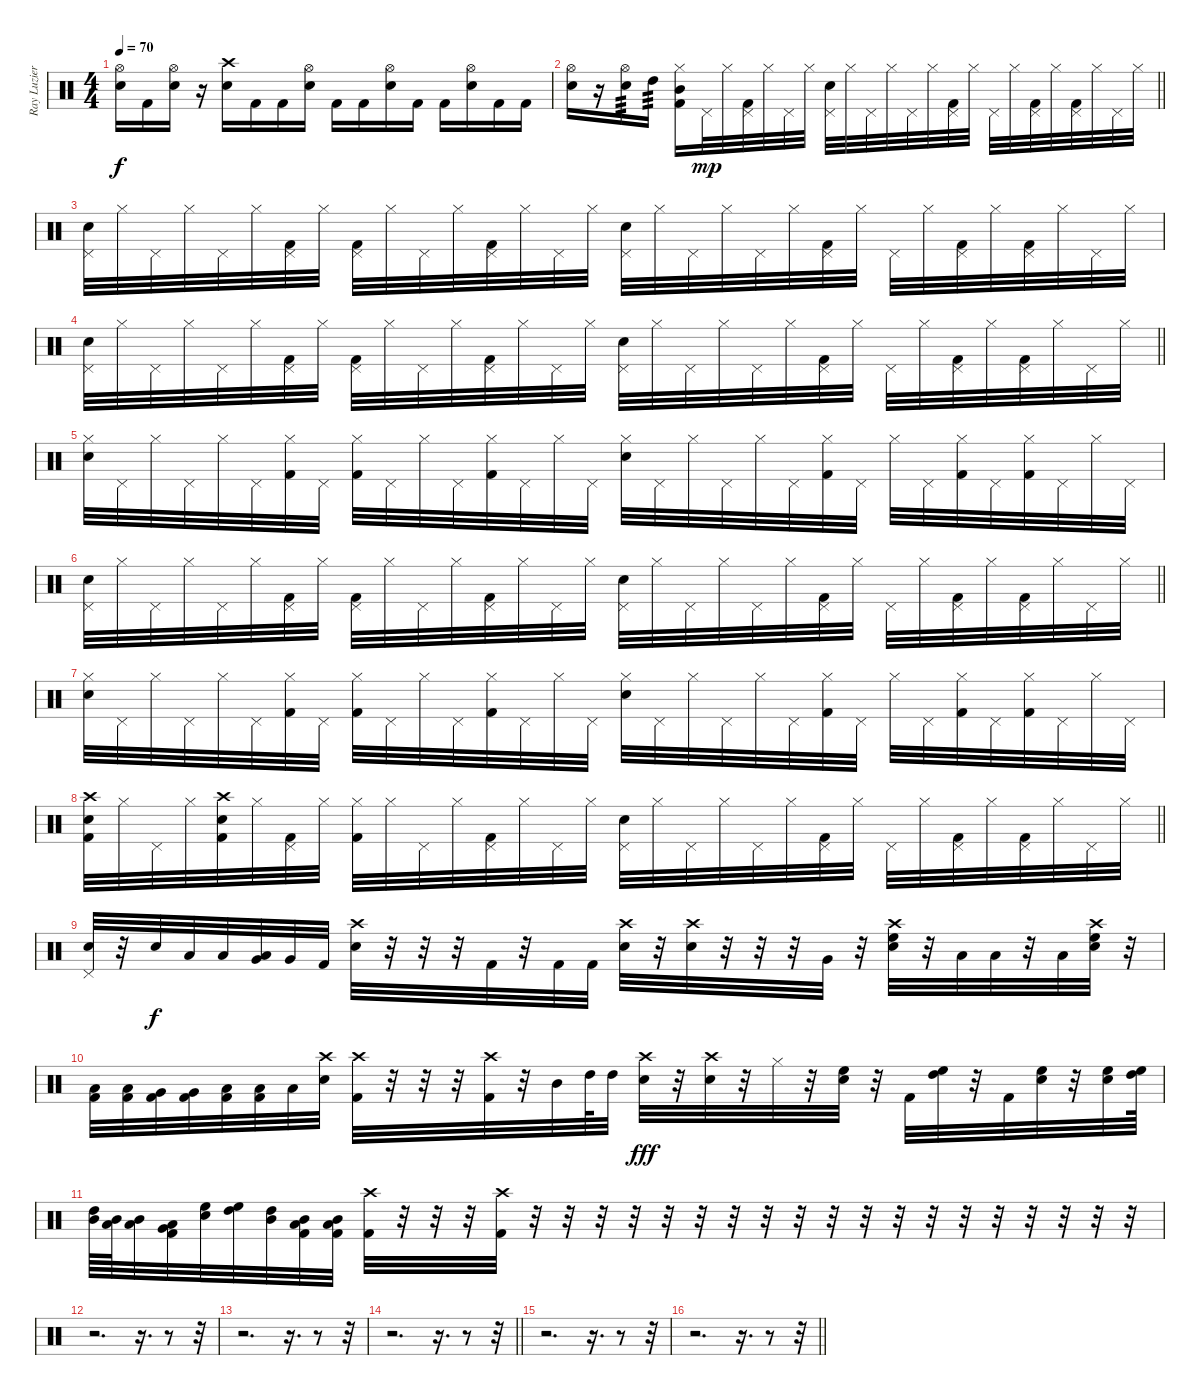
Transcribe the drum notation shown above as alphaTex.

\track ("Ray Luzier (Drums)" "Ray Luzier") {instrument percussion}
\staff {score}
\articulation defaults
\ts (4 4)
\tempo 70
\clef neutral
\ks c
("Hi-Hat (open)" "Electric Snare (hit)").16{dy f} "Kick (hit) 2".16 ("Hi-Hat (open)" "Electric Snare (hit)").16 r.16 ("Crash high (hit)" "Electric Snare (hit)").16 "Kick (hit) 2".16 "Kick (hit) 2".16 ("Hi-Hat (open)" "Electric Snare (hit)").16 "Kick (hit) 2".16 "Kick (hit) 2".16 ("Hi-Hat (open)" "Electric Snare (hit)").16 "Kick (hit) 2".16 "Kick (hit) 2".16 ("Hi-Hat (open)" "Electric Snare (hit)").16 "Kick (hit) 2".16 "Kick (hit) 2".16 |
\barLineRight lightlight
("Hi-Hat (open)" "Electric Snare (hit)").16 r.16 ("Hi-Hat (open)" "Electric Snare (hit)").16{tp 3} "High Tom (hit)".16{tp 3} ("Hi-Hat (closed)" "Mid Tom (hit)" "Kick (hit) 2").16 "Pedal Hi-Hat (hit)".32{dy mp} "Hi-Hat (closed)".32 ("Pedal Hi-Hat (hit)" "Kick (hit) 2").32 "Hi-Hat (closed)".32 "Pedal Hi-Hat (hit)".32 "Hi-Hat (closed)".32 ("Pedal Hi-Hat (hit)" "Electric Snare (hit)").32 "Hi-Hat (closed)".32 "Pedal Hi-Hat (hit)".32 "Hi-Hat (closed)".32 "Pedal Hi-Hat (hit)".32 "Hi-Hat (closed)".32 ("Pedal Hi-Hat (hit)" "Kick (hit) 2").32 "Hi-Hat (closed)".32 "Pedal Hi-Hat (hit)".32 "Hi-Hat (closed)".32 ("Pedal Hi-Hat (hit)" "Kick (hit) 2").32 "Hi-Hat (closed)".32 ("Pedal Hi-Hat (hit)" "Kick (hit) 2").32 "Hi-Hat (closed)".32 "Pedal Hi-Hat (hit)".32 "Hi-Hat (closed)".32 |
("Pedal Hi-Hat (hit)" "Electric Snare (hit)").32 "Hi-Hat (closed)".32 "Pedal Hi-Hat (hit)".32 "Hi-Hat (closed)".32 "Pedal Hi-Hat (hit)".32 "Hi-Hat (closed)".32 ("Pedal Hi-Hat (hit)" "Kick (hit) 2").32 "Hi-Hat (closed)".32 ("Pedal Hi-Hat (hit)" "Kick (hit) 2").32 "Hi-Hat (closed)".32 "Pedal Hi-Hat (hit)".32 "Hi-Hat (closed)".32 ("Pedal Hi-Hat (hit)" "Kick (hit) 2").32 "Hi-Hat (closed)".32 "Pedal Hi-Hat (hit)".32 "Hi-Hat (closed)".32 ("Pedal Hi-Hat (hit)" "Electric Snare (hit)").32 "Hi-Hat (closed)".32 "Pedal Hi-Hat (hit)".32 "Hi-Hat (closed)".32 "Pedal Hi-Hat (hit)".32 "Hi-Hat (closed)".32 ("Pedal Hi-Hat (hit)" "Kick (hit) 2").32 "Hi-Hat (closed)".32 "Pedal Hi-Hat (hit)".32 "Hi-Hat (closed)".32 ("Pedal Hi-Hat (hit)" "Kick (hit) 2").32 "Hi-Hat (closed)".32 ("Pedal Hi-Hat (hit)" "Kick (hit) 2").32 "Hi-Hat (closed)".32 "Pedal Hi-Hat (hit)".32 "Hi-Hat (closed)".32 |
\barLineRight lightlight
("Pedal Hi-Hat (hit)" "Electric Snare (hit)").32 "Hi-Hat (closed)".32 "Pedal Hi-Hat (hit)".32 "Hi-Hat (closed)".32 "Pedal Hi-Hat (hit)".32 "Hi-Hat (closed)".32 ("Pedal Hi-Hat (hit)" "Kick (hit) 2").32 "Hi-Hat (closed)".32 ("Pedal Hi-Hat (hit)" "Kick (hit) 2").32 "Hi-Hat (closed)".32 "Pedal Hi-Hat (hit)".32 "Hi-Hat (closed)".32 ("Pedal Hi-Hat (hit)" "Kick (hit) 2").32 "Hi-Hat (closed)".32 "Pedal Hi-Hat (hit)".32 "Hi-Hat (closed)".32 ("Pedal Hi-Hat (hit)" "Electric Snare (hit)").32 "Hi-Hat (closed)".32 "Pedal Hi-Hat (hit)".32 "Hi-Hat (closed)".32 "Pedal Hi-Hat (hit)".32 "Hi-Hat (closed)".32 ("Pedal Hi-Hat (hit)" "Kick (hit) 2").32 "Hi-Hat (closed)".32 "Pedal Hi-Hat (hit)".32 "Hi-Hat (closed)".32 ("Pedal Hi-Hat (hit)" "Kick (hit) 2").32 "Hi-Hat (closed)".32 ("Pedal Hi-Hat (hit)" "Kick (hit) 2").32 "Hi-Hat (closed)".32 "Pedal Hi-Hat (hit)".32 "Hi-Hat (closed)".32 |
("Hi-Hat (closed)" "Electric Snare (hit)").32 "Pedal Hi-Hat (hit)".32 "Hi-Hat (closed)".32 "Pedal Hi-Hat (hit)".32 "Hi-Hat (closed)".32 "Pedal Hi-Hat (hit)".32 ("Hi-Hat (closed)" "Kick (hit) 2").32 "Pedal Hi-Hat (hit)".32 ("Hi-Hat (closed)" "Kick (hit) 2").32 "Pedal Hi-Hat (hit)".32 "Hi-Hat (closed)".32 "Pedal Hi-Hat (hit)".32 ("Hi-Hat (closed)" "Kick (hit) 2").32 "Pedal Hi-Hat (hit)".32 "Hi-Hat (closed)".32 "Pedal Hi-Hat (hit)".32 ("Hi-Hat (closed)" "Electric Snare (hit)").32 "Pedal Hi-Hat (hit)".32 "Hi-Hat (closed)".32 "Pedal Hi-Hat (hit)".32 "Hi-Hat (closed)".32 "Pedal Hi-Hat (hit)".32 ("Hi-Hat (closed)" "Kick (hit) 2").32 "Pedal Hi-Hat (hit)".32 "Hi-Hat (closed)".32 "Pedal Hi-Hat (hit)".32 ("Hi-Hat (closed)" "Kick (hit) 2").32 "Pedal Hi-Hat (hit)".32 ("Hi-Hat (closed)" "Kick (hit) 2").32 "Pedal Hi-Hat (hit)".32 "Hi-Hat (closed)".32 "Pedal Hi-Hat (hit)".32 |
\barLineRight lightlight
("Pedal Hi-Hat (hit)" "Electric Snare (hit)").32 "Hi-Hat (closed)".32 "Pedal Hi-Hat (hit)".32 "Hi-Hat (closed)".32 "Pedal Hi-Hat (hit)".32 "Hi-Hat (closed)".32 ("Pedal Hi-Hat (hit)" "Kick (hit) 2").32 "Hi-Hat (closed)".32 ("Pedal Hi-Hat (hit)" "Kick (hit) 2").32 "Hi-Hat (closed)".32 "Pedal Hi-Hat (hit)".32 "Hi-Hat (closed)".32 ("Pedal Hi-Hat (hit)" "Kick (hit) 2").32 "Hi-Hat (closed)".32 "Pedal Hi-Hat (hit)".32 "Hi-Hat (closed)".32 ("Pedal Hi-Hat (hit)" "Electric Snare (hit)").32 "Hi-Hat (closed)".32 "Pedal Hi-Hat (hit)".32 "Hi-Hat (closed)".32 "Pedal Hi-Hat (hit)".32 "Hi-Hat (closed)".32 ("Pedal Hi-Hat (hit)" "Kick (hit) 2").32 "Hi-Hat (closed)".32 "Pedal Hi-Hat (hit)".32 "Hi-Hat (closed)".32 ("Pedal Hi-Hat (hit)" "Kick (hit) 2").32 "Hi-Hat (closed)".32 ("Pedal Hi-Hat (hit)" "Kick (hit) 2").32 "Hi-Hat (closed)".32 "Pedal Hi-Hat (hit)".32 "Hi-Hat (closed)".32 |
("Hi-Hat (closed)" "Electric Snare (hit)").32 "Pedal Hi-Hat (hit)".32 "Hi-Hat (closed)".32 "Pedal Hi-Hat (hit)".32 "Hi-Hat (closed)".32 "Pedal Hi-Hat (hit)".32 ("Hi-Hat (closed)" "Kick (hit) 2").32 "Pedal Hi-Hat (hit)".32 ("Hi-Hat (closed)" "Kick (hit) 2").32 "Pedal Hi-Hat (hit)".32 "Hi-Hat (closed)".32 "Pedal Hi-Hat (hit)".32 ("Hi-Hat (closed)" "Kick (hit) 2").32 "Pedal Hi-Hat (hit)".32 "Hi-Hat (closed)".32 "Pedal Hi-Hat (hit)".32 ("Hi-Hat (closed)" "Electric Snare (hit)").32 "Pedal Hi-Hat (hit)".32 "Hi-Hat (closed)".32 "Pedal Hi-Hat (hit)".32 "Hi-Hat (closed)".32 "Pedal Hi-Hat (hit)".32 ("Hi-Hat (closed)" "Kick (hit) 2").32 "Pedal Hi-Hat (hit)".32 "Hi-Hat (closed)".32 "Pedal Hi-Hat (hit)".32 ("Hi-Hat (closed)" "Kick (hit) 2").32 "Pedal Hi-Hat (hit)".32 ("Hi-Hat (closed)" "Kick (hit) 2").32 "Pedal Hi-Hat (hit)".32 "Hi-Hat (closed)".32 "Pedal Hi-Hat (hit)".32 |
\barLineRight lightlight
("Crash high (hit)" "Electric Snare (hit)" "Kick (hit) 2").32 "Hi-Hat (closed)".32 "Pedal Hi-Hat (hit)".32 "Hi-Hat (closed)".32 ("Crash high (hit)" "Electric Snare (hit)" "Kick (hit) 2").32 "Hi-Hat (closed)".32 ("Pedal Hi-Hat (hit)" "Kick (hit) 2").32 "Hi-Hat (closed)".32 ("Hi-Hat (closed)" "Kick (hit) 2").32 "Hi-Hat (closed)".32 "Pedal Hi-Hat (hit)".32 "Hi-Hat (closed)".32 ("Pedal Hi-Hat (hit)" "Kick (hit) 2").32 "Hi-Hat (closed)".32 "Pedal Hi-Hat (hit)".32 "Hi-Hat (closed)".32 ("Pedal Hi-Hat (hit)" "Electric Snare (hit)").32 "Hi-Hat (closed)".32 "Pedal Hi-Hat (hit)".32 "Hi-Hat (closed)".32 "Pedal Hi-Hat (hit)".32 "Hi-Hat (closed)".32 ("Pedal Hi-Hat (hit)" "Kick (hit) 2").32 "Hi-Hat (closed)".32 "Pedal Hi-Hat (hit)".32 "Hi-Hat (closed)".32 ("Pedal Hi-Hat (hit)" "Kick (hit) 2").32 "Hi-Hat (closed)".32 ("Pedal Hi-Hat (hit)" "Kick (hit) 2").32 "Hi-Hat (closed)".32 "Pedal Hi-Hat (hit)".32 "Hi-Hat (closed)".32 |
("Pedal Hi-Hat (hit)" "Electric Snare (hit)").32 r.32 "Electric Snare (hit)".32{dy f} "Low Tom (hit)".32 "Low Tom (hit)".32 ("Low Tom (hit)" "Very Low Tom (hit)").32 "Very Low Tom (hit)".32 "Kick (hit) 2".32 ("Crash high (hit)" "Electric Snare (hit)").32 r.32 r.32 r.32 "Kick (hit) 2".32 r.32 "Kick (hit) 2".32 "Kick (hit) 2".32 ("Crash high (hit)" "Electric Snare (hit)").32 r.32 ("Crash high (hit)" "Electric Snare (hit)").32 r.32 r.32 r.32 "Very Low Tom (hit)".32 r.32 ("Crash high (hit)" "Electric Snare (hit)" "High Floor Tom (hit)").32 r.32 "Low Tom (hit)".32 "Low Tom (hit)".32 r.32 "Low Tom (hit)".32 ("Crash high (hit)" "Electric Snare (hit)" "High Floor Tom (hit)").32 r.32 |
("Low Tom (hit)" "Kick (hit) 2").32 ("Low Tom (hit)" "Kick (hit) 2").32 ("Very Low Tom (hit)" "Kick (hit) 2").32 ("Very Low Tom (hit)" "Kick (hit) 2").32 ("Low Floor Tom (hit)" "Kick (hit) 2").32 ("Low Floor Tom (hit)" "Kick (hit) 2").32 "Low Floor Tom (hit)".32 ("Crash high (hit)" "Electric Snare (hit)").32 ("Crash high (hit)" "Kick (hit) 2").32 r.32 r.32 r.32 ("Crash high (hit)" "Kick (hit) 2").32 r.32 "Mid Tom (hit)".32 "High Tom (hit)".64 "High Tom (hit)".32 ("Crash high (hit)" "Electric Snare (hit)").32{dy fff} r.32 ("Crash high (hit)" "Electric Snare (hit)").32 r.32 "Hi-Hat (closed)".32 r.32 ("Electric Snare (hit)" "High Floor Tom (hit)").32 r.32 "Kick (hit) 2".32 ("High Floor Tom (hit)" "High Tom (hit)").32 r.32 "Kick (hit) 2".32 ("Electric Snare (hit)" "High Floor Tom (hit)").32 r.32 ("Electric Snare (hit)" "High Floor Tom (hit)").32 ("High Floor Tom (hit)" "High Tom (hit)").64 |
("High Tom (hit)" "Mid Tom (hit)").64 ("Mid Tom (hit)" "Low Tom (hit)").64 ("Mid Tom (hit)" "Low Tom (hit)").32 ("Low Tom (hit)" "Very Low Tom (hit)" "Kick (hit) 2").32 ("Electric Snare (hit)" "High Floor Tom (hit)").32 ("High Floor Tom (hit)" "High Tom (hit)").32 ("High Tom (hit)" "Mid Tom (hit)").32 ("Mid Tom (hit)" "Low Tom (hit)" "Kick (hit) 2").32 ("Mid Tom (hit)" "Low Tom (hit)" "Kick (hit) 2").32 ("Crash high (hit)" "Kick (hit) 2").32 r.32 r.32 r.32 ("Crash high (hit)" "Kick (hit) 2").32 r.32 r.32 r.32 r.32 r.32 r.32 r.32 r.32 r.32 r.32 r.32 r.32 r.32 r.32 r.32 r.32 r.32 r.32 r.32 |
r.2{d} r.16{d} r.8 r.32 |
r.2{d} r.16{d} r.8 r.32 |
\barLineRight lightlight
r.2{d} r.16{d} r.8 r.32 |
r.2{d} r.16{d} r.8 r.32 |
\barLineRight lightlight
r.2{d} r.16{d} r.8 r.32
